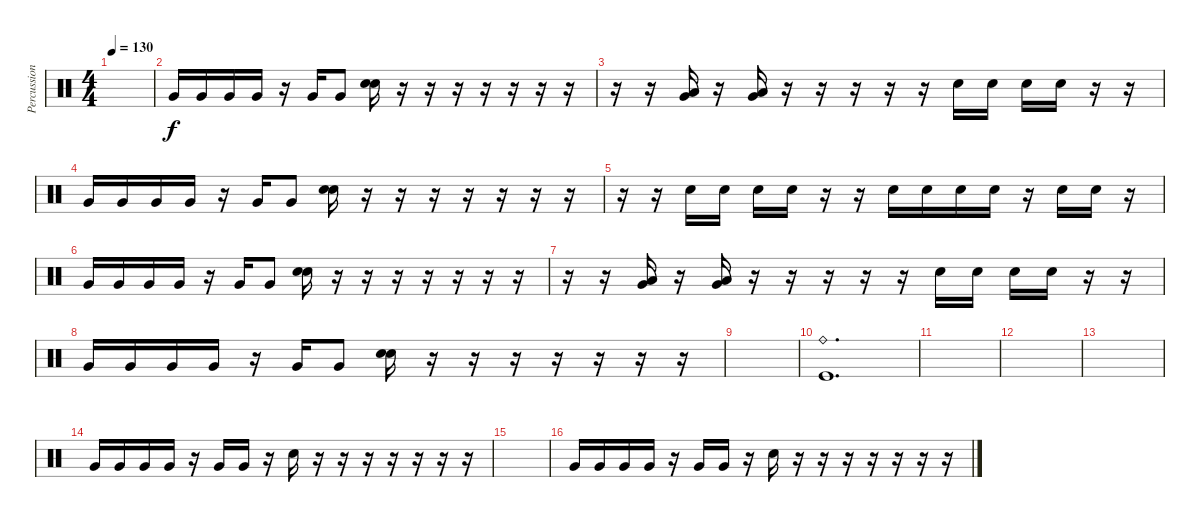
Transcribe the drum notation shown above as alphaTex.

\track ("Percussion" "Percussion") {instrument percussion}
\staff {score}
\articulation defaults
\ts (4 4)
\tempo 130
\clef neutral
\ks c
|
"Very Low Tom (hit)".16 "Very Low Tom (hit)".16 "Very Low Tom (hit)".16 "Very Low Tom (hit)".16 r.16 "Very Low Tom (hit)".16 "Very Low Tom (hit)".8 ("Snare (hit) 2" "Electric Snare (hit)").16 r.16 r.16 r.16 r.16 r.16 r.16 r.16 |
r.16 r.16 ("Low Tom (hit)" "Very Low Tom (hit)").16 r.16 ("Low Tom (hit)" "Very Low Tom (hit)").16 r.16 r.16 r.16 r.16 r.16 "Electric Snare (hit)".16 "Electric Snare (hit)".16 "Electric Snare (hit)".16 "Electric Snare (hit)".16 r.16 r.16 |
"Very Low Tom (hit)".16 "Very Low Tom (hit)".16 "Very Low Tom (hit)".16 "Very Low Tom (hit)".16 r.16 "Very Low Tom (hit)".16 "Very Low Tom (hit)".8 ("Snare (hit) 2" "Electric Snare (hit)").16 r.16 r.16 r.16 r.16 r.16 r.16 r.16 |
r.16 r.16 "Electric Snare (hit)".16 "Electric Snare (hit)".16 "Electric Snare (hit)".16 "Electric Snare (hit)".16 r.16 r.16 "Electric Snare (hit)".16 "Electric Snare (hit)".16 "Electric Snare (hit)".16 "Electric Snare (hit)".16 r.16 "Electric Snare (hit)".16 "Electric Snare (hit)".16 r.16 |
"Very Low Tom (hit)".16 "Very Low Tom (hit)".16 "Very Low Tom (hit)".16 "Very Low Tom (hit)".16 r.16 "Very Low Tom (hit)".16 "Very Low Tom (hit)".8 ("Snare (hit) 2" "Electric Snare (hit)").16 r.16 r.16 r.16 r.16 r.16 r.16 r.16 |
r.16 r.16 ("Low Tom (hit)" "Very Low Tom (hit)").16 r.16 ("Low Tom (hit)" "Very Low Tom (hit)").16 r.16 r.16 r.16 r.16 r.16 "Electric Snare (hit)".16 "Electric Snare (hit)".16 "Electric Snare (hit)".16 "Electric Snare (hit)".16 r.16 r.16 |
"Very Low Tom (hit)".16 "Very Low Tom (hit)".16 "Very Low Tom (hit)".16 "Very Low Tom (hit)".16 r.16 "Very Low Tom (hit)".16 "Very Low Tom (hit)".8 ("Snare (hit) 2" "Electric Snare (hit)").16 r.16 r.16 r.16 r.16 r.16 r.16 r.16 |
|
("Ride (bell)" "Kick (hit)").1{d} |
|
|
|
"Very Low Tom (hit)".16 "Very Low Tom (hit)".16 "Very Low Tom (hit)".16 "Very Low Tom (hit)".16 r.16 "Very Low Tom (hit)".16 "Very Low Tom (hit)".16 r.16 "Electric Snare (hit)".16 r.16 r.16 r.16 r.16 r.16 r.16 r.16 |
|
"Very Low Tom (hit)".16 "Very Low Tom (hit)".16 "Very Low Tom (hit)".16 "Very Low Tom (hit)".16 r.16 "Very Low Tom (hit)".16 "Very Low Tom (hit)".16 r.16 "Electric Snare (hit)".16 r.16 r.16 r.16 r.16 r.16 r.16 r.16
